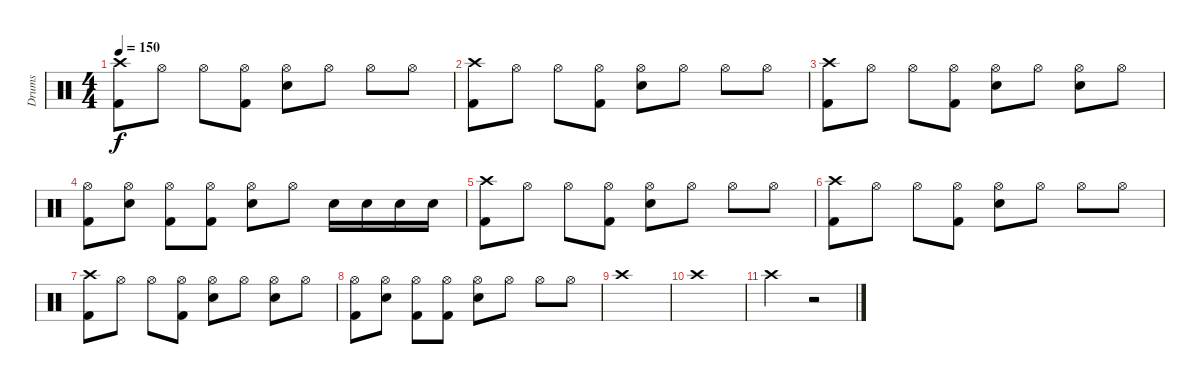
\track ("Drums" "Drums") {instrument percussion}
\staff {score}
\articulation defaults
\ts (4 4)
\tempo 150
\clef neutral
\ks c
("Crash high (hit)" "Kick (hit) 2").8{dy f} "Hi-Hat (open)".8 "Hi-Hat (open)".8 ("Hi-Hat (open)" "Kick (hit) 2").8 ("Hi-Hat (open)" "Electric Snare (hit)").8 "Hi-Hat (open)".8 "Hi-Hat (open)".8 "Hi-Hat (open)".8 |
("Crash high (hit)" "Kick (hit) 2").8 "Hi-Hat (open)".8 "Hi-Hat (open)".8 ("Hi-Hat (open)" "Kick (hit) 2").8 ("Hi-Hat (open)" "Electric Snare (hit)").8 "Hi-Hat (open)".8 "Hi-Hat (open)".8 "Hi-Hat (open)".8 |
("Crash high (hit)" "Kick (hit) 2").8 "Hi-Hat (open)".8 "Hi-Hat (open)".8 ("Hi-Hat (open)" "Kick (hit) 2").8 ("Hi-Hat (open)" "Electric Snare (hit)").8 "Hi-Hat (open)".8 ("Hi-Hat (open)" "Electric Snare (hit)").8 "Hi-Hat (open)".8 |
("Hi-Hat (open)" "Kick (hit) 2").8 ("Hi-Hat (open)" "Electric Snare (hit)").8 ("Hi-Hat (open)" "Kick (hit) 2").8 ("Hi-Hat (open)" "Kick (hit) 2").8 ("Hi-Hat (open)" "Electric Snare (hit)").8 "Hi-Hat (open)".8 "Electric Snare (hit)".16 "Electric Snare (hit)".16 "Electric Snare (hit)".16 "Electric Snare (hit)".16 |
("Crash high (hit)" "Kick (hit) 2").8 "Hi-Hat (open)".8 "Hi-Hat (open)".8 ("Hi-Hat (open)" "Kick (hit) 2").8 ("Hi-Hat (open)" "Electric Snare (hit)").8 "Hi-Hat (open)".8 "Hi-Hat (open)".8 "Hi-Hat (open)".8 |
("Crash high (hit)" "Kick (hit) 2").8 "Hi-Hat (open)".8 "Hi-Hat (open)".8 ("Hi-Hat (open)" "Kick (hit) 2").8 ("Hi-Hat (open)" "Electric Snare (hit)").8 "Hi-Hat (open)".8 "Hi-Hat (open)".8 "Hi-Hat (open)".8 |
("Crash high (hit)" "Kick (hit) 2").8 "Hi-Hat (open)".8 "Hi-Hat (open)".8 ("Hi-Hat (open)" "Kick (hit) 2").8 ("Hi-Hat (open)" "Electric Snare (hit)").8 "Hi-Hat (open)".8 ("Hi-Hat (open)" "Electric Snare (hit)").8 "Hi-Hat (open)".8 |
("Hi-Hat (open)" "Kick (hit) 2").8 ("Hi-Hat (open)" "Electric Snare (hit)").8 ("Hi-Hat (open)" "Kick (hit) 2").8 ("Hi-Hat (open)" "Kick (hit) 2").8 ("Hi-Hat (open)" "Electric Snare (hit)").8 "Hi-Hat (open)".8 "Hi-Hat (open)".8 "Hi-Hat (open)".8 |
"Crash high (hit)".1 |
"Crash high (hit)".1 |
"Crash high (hit)".2 r.2
